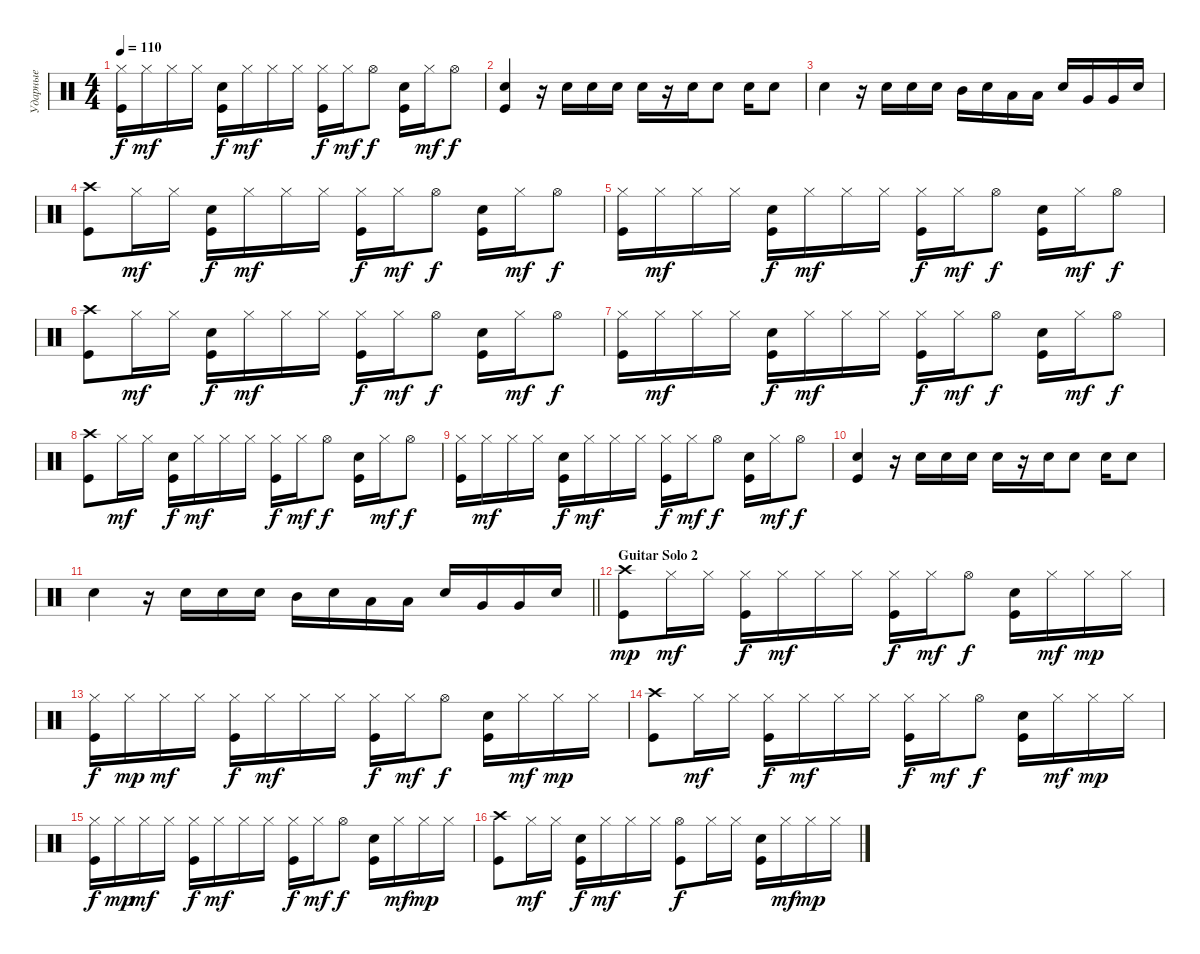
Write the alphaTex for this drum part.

\track ("Ударные" "Ударные") {instrument percussion}
\staff {score}
\articulation defaults
\ts (4 4)
\tempo 110
\clef neutral
\ks c
("Hi-Hat (closed)" "Kick (hit)").16{dy f} "Hi-Hat (closed)".16{dy mf} "Hi-Hat (closed)".16 "Hi-Hat (closed)".16 ("Snare (hit) 2" "Kick (hit)").16{dy f} "Hi-Hat (closed)".16{dy mf} "Hi-Hat (closed)".16 "Hi-Hat (closed)".16 ("Hi-Hat (closed)" "Kick (hit)").16{dy f} "Hi-Hat (closed)".16{dy mf} "Hi-Hat (open)".8{dy f} ("Kick (hit)" "Snare (hit) 2").16 "Hi-Hat (closed)".16{dy mf} "Hi-Hat (open)".8{dy f} |
("Snare (hit) 2" "Kick (hit)").4 r.16 "Snare (hit) 2".16 "Snare (hit) 2".16 "Snare (hit) 2".16 "Snare (hit) 2".16 r.16 "Snare (hit) 2".16 "Snare (hit) 2".8 "Snare (hit) 2".16 "Snare (hit) 2".8 |
"Snare (hit) 2".4 r.16 "Snare (hit) 2".16 "Snare (hit) 2".16 "Snare (hit) 2".16 "Mid Tom (hit)".16 "Snare (hit) 2".16 "Low Tom (hit)".16 "Low Tom (hit)".16 "Snare (hit) 2".16 "Very Low Tom (hit)".16 "Very Low Tom (hit)".16 "Snare (hit) 2".16 |
("Crash high (hit)" "Kick (hit)").8 "Hi-Hat (closed)".16{dy mf} "Hi-Hat (closed)".16 ("Snare (hit) 2" "Kick (hit)").16{dy f} "Hi-Hat (closed)".16{dy mf} "Hi-Hat (closed)".16 "Hi-Hat (closed)".16 ("Hi-Hat (closed)" "Kick (hit)").16{dy f} "Hi-Hat (closed)".16{dy mf} "Hi-Hat (open)".8{dy f} ("Kick (hit)" "Snare (hit) 2").16 "Hi-Hat (closed)".16{dy mf} "Hi-Hat (open)".8{dy f} |
("Hi-Hat (closed)" "Kick (hit)").16 "Hi-Hat (closed)".16{dy mf} "Hi-Hat (closed)".16 "Hi-Hat (closed)".16 ("Snare (hit) 2" "Kick (hit)").16{dy f} "Hi-Hat (closed)".16{dy mf} "Hi-Hat (closed)".16 "Hi-Hat (closed)".16 ("Hi-Hat (closed)" "Kick (hit)").16{dy f} "Hi-Hat (closed)".16{dy mf} "Hi-Hat (open)".8{dy f} ("Kick (hit)" "Snare (hit) 2").16 "Hi-Hat (closed)".16{dy mf} "Hi-Hat (open)".8{dy f} |
("Crash high (hit)" "Kick (hit)").8 "Hi-Hat (closed)".16{dy mf} "Hi-Hat (closed)".16 ("Snare (hit) 2" "Kick (hit)").16{dy f} "Hi-Hat (closed)".16{dy mf} "Hi-Hat (closed)".16 "Hi-Hat (closed)".16 ("Hi-Hat (closed)" "Kick (hit)").16{dy f} "Hi-Hat (closed)".16{dy mf} "Hi-Hat (open)".8{dy f} ("Kick (hit)" "Snare (hit) 2").16 "Hi-Hat (closed)".16{dy mf} "Hi-Hat (open)".8{dy f} |
("Hi-Hat (closed)" "Kick (hit)").16 "Hi-Hat (closed)".16{dy mf} "Hi-Hat (closed)".16 "Hi-Hat (closed)".16 ("Snare (hit) 2" "Kick (hit)").16{dy f} "Hi-Hat (closed)".16{dy mf} "Hi-Hat (closed)".16 "Hi-Hat (closed)".16 ("Hi-Hat (closed)" "Kick (hit)").16{dy f} "Hi-Hat (closed)".16{dy mf} "Hi-Hat (open)".8{dy f} ("Kick (hit)" "Snare (hit) 2").16 "Hi-Hat (closed)".16{dy mf} "Hi-Hat (open)".8{dy f} |
("Crash high (hit)" "Kick (hit)").8 "Hi-Hat (closed)".16{dy mf} "Hi-Hat (closed)".16 ("Snare (hit) 2" "Kick (hit)").16{dy f} "Hi-Hat (closed)".16{dy mf} "Hi-Hat (closed)".16 "Hi-Hat (closed)".16 ("Hi-Hat (closed)" "Kick (hit)").16{dy f} "Hi-Hat (closed)".16{dy mf} "Hi-Hat (open)".8{dy f} ("Kick (hit)" "Snare (hit) 2").16 "Hi-Hat (closed)".16{dy mf} "Hi-Hat (open)".8{dy f} |
("Hi-Hat (closed)" "Kick (hit)").16 "Hi-Hat (closed)".16{dy mf} "Hi-Hat (closed)".16 "Hi-Hat (closed)".16 ("Snare (hit) 2" "Kick (hit)").16{dy f} "Hi-Hat (closed)".16{dy mf} "Hi-Hat (closed)".16 "Hi-Hat (closed)".16 ("Hi-Hat (closed)" "Kick (hit)").16{dy f} "Hi-Hat (closed)".16{dy mf} "Hi-Hat (open)".8{dy f} ("Kick (hit)" "Snare (hit) 2").16 "Hi-Hat (closed)".16{dy mf} "Hi-Hat (open)".8{dy f} |
("Snare (hit) 2" "Kick (hit)").4 r.16 "Snare (hit) 2".16 "Snare (hit) 2".16 "Snare (hit) 2".16 "Snare (hit) 2".16 r.16 "Snare (hit) 2".16 "Snare (hit) 2".8 "Snare (hit) 2".16 "Snare (hit) 2".8 |
\barLineRight lightlight "Snare (hit) 2".4
r.16 "Snare (hit) 2".16 "Snare (hit) 2".16 "Snare (hit) 2".16 "Mid Tom (hit)".16 "Snare (hit) 2".16 "Low Tom (hit)".16 "Low Tom (hit)".16 "Snare (hit) 2".16 "Very Low Tom (hit)".16 "Very Low Tom (hit)".16 "Snare (hit) 2".16 |
\section ("" "Guitar Solo 2")
("Crash high (hit)" "Kick (hit)").8{dy mp} "Hi-Hat (closed)".16{dy mf} "Hi-Hat (closed)".16 ("Hi-Hat (closed)" "Kick (hit)").16{dy f} "Hi-Hat (closed)".16{dy mf} "Hi-Hat (closed)".16 "Hi-Hat (closed)".16 ("Hi-Hat (closed)" "Kick (hit)").16{dy f} "Hi-Hat (closed)".16{dy mf} "Hi-Hat (open)".8{dy f} ("Kick (hit)" "Snare (hit) 2").16 "Hi-Hat (closed)".16{dy mf} "Hi-Hat (closed)".16{dy mp} "Hi-Hat (closed)".16 |
("Hi-Hat (closed)" "Kick (hit)").16{dy f} "Hi-Hat (closed)".16{dy mp} "Hi-Hat (closed)".16{dy mf} "Hi-Hat (closed)".16 ("Hi-Hat (closed)" "Kick (hit)").16{dy f} "Hi-Hat (closed)".16{dy mf} "Hi-Hat (closed)".16 "Hi-Hat (closed)".16 ("Hi-Hat (closed)" "Kick (hit)").16{dy f} "Hi-Hat (closed)".16{dy mf} "Hi-Hat (open)".8{dy f} ("Kick (hit)" "Snare (hit) 2").16 "Hi-Hat (closed)".16{dy mf} "Hi-Hat (closed)".16{dy mp} "Hi-Hat (closed)".16 |
("Crash high (hit)" "Kick (hit)").8 "Hi-Hat (closed)".16{dy mf} "Hi-Hat (closed)".16 ("Hi-Hat (closed)" "Kick (hit)").16{dy f} "Hi-Hat (closed)".16{dy mf} "Hi-Hat (closed)".16 "Hi-Hat (closed)".16 ("Hi-Hat (closed)" "Kick (hit)").16{dy f} "Hi-Hat (closed)".16{dy mf} "Hi-Hat (open)".8{dy f} ("Kick (hit)" "Snare (hit) 2").16 "Hi-Hat (closed)".16{dy mf} "Hi-Hat (closed)".16{dy mp} "Hi-Hat (closed)".16 |
("Hi-Hat (closed)" "Kick (hit)").16{dy f} "Hi-Hat (closed)".16{dy mp} "Hi-Hat (closed)".16{dy mf} "Hi-Hat (closed)".16 ("Hi-Hat (closed)" "Kick (hit)").16{dy f} "Hi-Hat (closed)".16{dy mf} "Hi-Hat (closed)".16 "Hi-Hat (closed)".16 ("Hi-Hat (closed)" "Kick (hit)").16{dy f} "Hi-Hat (closed)".16{dy mf} "Hi-Hat (open)".8{dy f} ("Kick (hit)" "Snare (hit) 2").16 "Hi-Hat (closed)".16{dy mf} "Hi-Hat (closed)".16{dy mp} "Hi-Hat (closed)".16 |
("Crash high (hit)" "Kick (hit)").8 "Hi-Hat (closed)".16{dy mf} "Hi-Hat (closed)".16 ("Kick (hit)" "Snare (hit) 2").16{dy f} "Hi-Hat (closed)".16{dy mf} "Hi-Hat (closed)".16 "Hi-Hat (closed)".16 ("Hi-Hat (open)" "Kick (hit)").8{dy f} "Hi-Hat (closed)".16 "Hi-Hat (closed)".16 ("Kick (hit)" "Snare (hit) 2").16 "Hi-Hat (closed)".16{dy mf} "Hi-Hat (closed)".16{dy mp} "Hi-Hat (closed)".16
